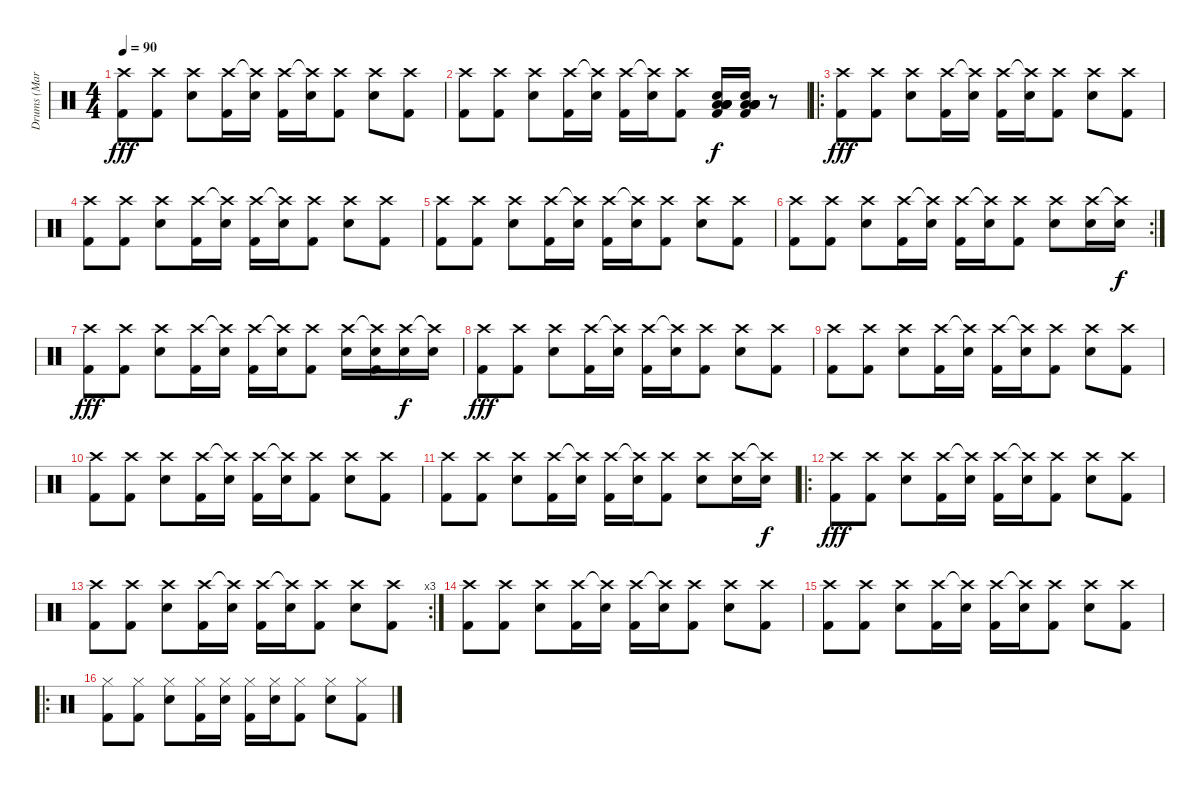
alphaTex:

\track ("Drums (Mark Escueta)" "Drums (Mar") {instrument percussion}
\staff {score}
\articulation defaults
\ts (4 4)
\tempo 90
\clef neutral
\ks c
("Crash high (hit)" "Kick (hit) 2").8{dy fff} ("Crash high (hit)" "Kick (hit) 2").8 ("Crash high (hit)" "Snare (hit) 2").8 ("Crash high (hit)" "Kick (hit) 2").16 ("Crash high (hit)"{t} "Snare (hit) 2").16 ("Crash high (hit)" "Kick (hit) 2").16 ("Crash high (hit)"{t} "Snare (hit) 2").16 ("Crash high (hit)" "Kick (hit) 2").8 ("Crash high (hit)" "Snare (hit) 2").8 ("Crash high (hit)" "Kick (hit) 2").8 |
("Crash high (hit)" "Kick (hit) 2").8 ("Crash high (hit)" "Kick (hit) 2").8 ("Crash high (hit)" "Snare (hit) 2").8 ("Crash high (hit)" "Kick (hit) 2").16 ("Crash high (hit)"{t} "Snare (hit) 2").16 ("Crash high (hit)" "Kick (hit) 2").16 ("Crash high (hit)"{t} "Snare (hit) 2").16 ("Crash high (hit)" "Kick (hit) 2").8 ("Low Floor Tom (hit)" "Low Floor Tom (hit)" "Snare (hit) 2" "Low Floor Tom (hit)" "Low Floor Tom (hit)" "Kick (hit) 2").16{dy f} ("Low Floor Tom (hit)" "Low Floor Tom (hit)" "Snare (hit) 2" "Low Floor Tom (hit)" "Low Floor Tom (hit)" "Kick (hit) 2").16 r.8 |
\ro
("Crash high (hit)" "Kick (hit) 2").8{dy fff} ("Crash high (hit)" "Kick (hit) 2").8 ("Crash high (hit)" "Snare (hit) 2").8 ("Crash high (hit)" "Kick (hit) 2").16 ("Crash high (hit)"{t} "Snare (hit) 2").16 ("Crash high (hit)" "Kick (hit) 2").16 ("Crash high (hit)"{t} "Snare (hit) 2").16 ("Crash high (hit)" "Kick (hit) 2").8 ("Crash high (hit)" "Snare (hit) 2").8 ("Crash high (hit)" "Kick (hit) 2").8 |
("Crash high (hit)" "Kick (hit) 2").8 ("Crash high (hit)" "Kick (hit) 2").8 ("Crash high (hit)" "Snare (hit) 2").8 ("Crash high (hit)" "Kick (hit) 2").16 ("Crash high (hit)"{t} "Snare (hit) 2").16 ("Crash high (hit)" "Kick (hit) 2").16 ("Crash high (hit)"{t} "Snare (hit) 2").16 ("Crash high (hit)" "Kick (hit) 2").8 ("Crash high (hit)" "Snare (hit) 2").8 ("Crash high (hit)" "Kick (hit) 2").8 |
("Crash high (hit)" "Kick (hit) 2").8 ("Crash high (hit)" "Kick (hit) 2").8 ("Crash high (hit)" "Snare (hit) 2").8 ("Crash high (hit)" "Kick (hit) 2").16 ("Crash high (hit)"{t} "Snare (hit) 2").16 ("Crash high (hit)" "Kick (hit) 2").16 ("Crash high (hit)"{t} "Snare (hit) 2").16 ("Crash high (hit)" "Kick (hit) 2").8 ("Crash high (hit)" "Snare (hit) 2").8 ("Crash high (hit)" "Kick (hit) 2").8 |
\rc 2
("Crash high (hit)" "Kick (hit) 2").8 ("Crash high (hit)" "Kick (hit) 2").8 ("Crash high (hit)" "Snare (hit) 2").8 ("Crash high (hit)" "Kick (hit) 2").16 ("Crash high (hit)"{t} "Snare (hit) 2").16 ("Crash high (hit)" "Kick (hit) 2").16 ("Crash high (hit)"{t} "Snare (hit) 2").16 ("Crash high (hit)" "Kick (hit) 2").8 ("Crash high (hit)" "Snare (hit) 2").8 ("Crash high (hit)" "Snare (hit) 2").16 ("Crash high (hit)"{t} "Snare (hit) 2").16{dy f} |
("Crash high (hit)" "Kick (hit) 2").8{dy fff} ("Crash high (hit)" "Kick (hit) 2").8 ("Crash high (hit)" "Snare (hit) 2").8 ("Crash high (hit)" "Kick (hit) 2").16 ("Crash high (hit)"{t} "Snare (hit) 2").16 ("Crash high (hit)" "Kick (hit) 2").16 ("Crash high (hit)"{t} "Snare (hit) 2").16 ("Crash high (hit)" "Kick (hit) 2").8 ("Crash high (hit)" "Snare (hit) 2").16 ("Crash high (hit)"{t} "Snare (hit) 2" "Kick (hit) 2").16 ("Crash high (hit)" "Snare (hit) 2").16{dy f} ("Crash high (hit)"{t} "Snare (hit) 2").16 |
("Crash high (hit)" "Kick (hit) 2").8{dy fff} ("Crash high (hit)" "Kick (hit) 2").8 ("Crash high (hit)" "Snare (hit) 2").8 ("Crash high (hit)" "Kick (hit) 2").16 ("Crash high (hit)"{t} "Snare (hit) 2").16 ("Crash high (hit)" "Kick (hit) 2").16 ("Crash high (hit)"{t} "Snare (hit) 2").16 ("Crash high (hit)" "Kick (hit) 2").8 ("Crash high (hit)" "Snare (hit) 2").8 ("Crash high (hit)" "Kick (hit) 2").8 |
("Crash high (hit)" "Kick (hit) 2").8 ("Crash high (hit)" "Kick (hit) 2").8 ("Crash high (hit)" "Snare (hit) 2").8 ("Crash high (hit)" "Kick (hit) 2").16 ("Crash high (hit)"{t} "Snare (hit) 2").16 ("Crash high (hit)" "Kick (hit) 2").16 ("Crash high (hit)"{t} "Snare (hit) 2").16 ("Crash high (hit)" "Kick (hit) 2").8 ("Crash high (hit)" "Snare (hit) 2").8 ("Crash high (hit)" "Kick (hit) 2").8 |
("Crash high (hit)" "Kick (hit) 2").8 ("Crash high (hit)" "Kick (hit) 2").8 ("Crash high (hit)" "Snare (hit) 2").8 ("Crash high (hit)" "Kick (hit) 2").16 ("Crash high (hit)"{t} "Snare (hit) 2").16 ("Crash high (hit)" "Kick (hit) 2").16 ("Crash high (hit)"{t} "Snare (hit) 2").16 ("Crash high (hit)" "Kick (hit) 2").8 ("Crash high (hit)" "Snare (hit) 2").8 ("Crash high (hit)" "Kick (hit) 2").8 |
("Crash high (hit)" "Kick (hit) 2").8 ("Crash high (hit)" "Kick (hit) 2").8 ("Crash high (hit)" "Snare (hit) 2").8 ("Crash high (hit)" "Kick (hit) 2").16 ("Crash high (hit)"{t} "Snare (hit) 2").16 ("Crash high (hit)" "Kick (hit) 2").16 ("Crash high (hit)"{t} "Snare (hit) 2").16 ("Crash high (hit)" "Kick (hit) 2").8 ("Crash high (hit)" "Snare (hit) 2").8 ("Crash high (hit)" "Snare (hit) 2").16 ("Crash high (hit)"{t} "Snare (hit) 2").16{dy f} |
\ro
("Crash high (hit)" "Kick (hit) 2").8{dy fff} ("Crash high (hit)" "Kick (hit) 2").8 ("Crash high (hit)" "Snare (hit) 2").8 ("Crash high (hit)" "Kick (hit) 2").16 ("Crash high (hit)"{t} "Snare (hit) 2").16 ("Crash high (hit)" "Kick (hit) 2").16 ("Crash high (hit)"{t} "Snare (hit) 2").16 ("Crash high (hit)" "Kick (hit) 2").8 ("Crash high (hit)" "Snare (hit) 2").8 ("Crash high (hit)" "Kick (hit) 2").8 |
\rc 3
("Crash high (hit)" "Kick (hit) 2").8 ("Crash high (hit)" "Kick (hit) 2").8 ("Crash high (hit)" "Snare (hit) 2").8 ("Crash high (hit)" "Kick (hit) 2").16 ("Crash high (hit)"{t} "Snare (hit) 2").16 ("Crash high (hit)" "Kick (hit) 2").16 ("Crash high (hit)"{t} "Snare (hit) 2").16 ("Crash high (hit)" "Kick (hit) 2").8 ("Crash high (hit)" "Snare (hit) 2").8 ("Crash high (hit)" "Kick (hit) 2").8 |
("Crash high (hit)" "Kick (hit) 2").8 ("Crash high (hit)" "Kick (hit) 2").8 ("Crash high (hit)" "Snare (hit) 2").8 ("Crash high (hit)" "Kick (hit) 2").16 ("Crash high (hit)"{t} "Snare (hit) 2").16 ("Crash high (hit)" "Kick (hit) 2").16 ("Crash high (hit)"{t} "Snare (hit) 2").16 ("Crash high (hit)" "Kick (hit) 2").8 ("Crash high (hit)" "Snare (hit) 2").8 ("Crash high (hit)" "Kick (hit) 2").8 |
("Crash high (hit)" "Kick (hit) 2").8 ("Crash high (hit)" "Kick (hit) 2").8 ("Crash high (hit)" "Snare (hit) 2").8 ("Crash high (hit)" "Kick (hit) 2").16 ("Crash high (hit)"{t} "Snare (hit) 2").16 ("Crash high (hit)" "Kick (hit) 2").16 ("Crash high (hit)"{t} "Snare (hit) 2").16 ("Crash high (hit)" "Kick (hit) 2").8 ("Crash high (hit)" "Snare (hit) 2").8 ("Crash high (hit)" "Kick (hit) 2").8 |
\ro
("Hi-Hat (closed)" "Kick (hit) 2").8 ("Hi-Hat (closed)" "Kick (hit) 2").8 ("Hi-Hat (closed)" "Snare (hit) 2").8 ("Hi-Hat (closed)" "Kick (hit) 2").16 ("Hi-Hat (closed)" "Snare (hit) 2").16 ("Hi-Hat (closed)" "Kick (hit) 2").16 ("Hi-Hat (closed)" "Snare (hit) 2").16 ("Hi-Hat (closed)" "Kick (hit) 2").8 ("Hi-Hat (closed)" "Snare (hit) 2").8 ("Hi-Hat (closed)" "Kick (hit) 2").8
